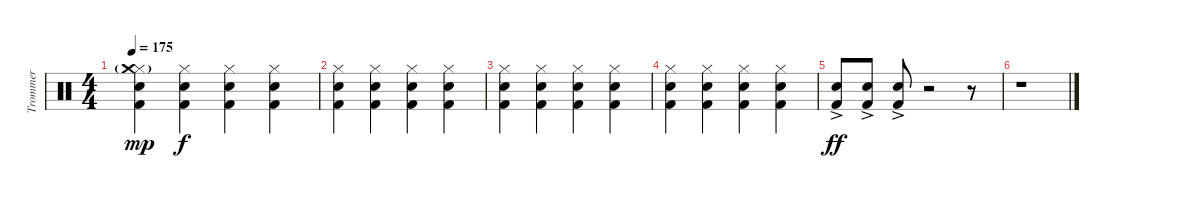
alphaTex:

\track ("Trommer" "Trommer") {instrument percussion}
\staff {score}
\articulation defaults
\ts (4 4)
\tempo 175
\clef neutral
\ks c
("Hi-Hat (closed)" "Crash medium (hit)"{g} "Electric Snare (hit)" "Kick (hit) 2").4{dy mp} ("Hi-Hat (closed)" "Electric Snare (hit)" "Kick (hit) 2").4{dy f} ("Hi-Hat (closed)" "Electric Snare (hit)" "Kick (hit) 2").4 ("Hi-Hat (closed)" "Electric Snare (hit)" "Kick (hit) 2").4 |
("Hi-Hat (closed)" "Electric Snare (hit)" "Kick (hit) 2").4 ("Hi-Hat (closed)" "Electric Snare (hit)" "Kick (hit) 2").4 ("Hi-Hat (closed)" "Electric Snare (hit)" "Kick (hit) 2").4 ("Hi-Hat (closed)" "Electric Snare (hit)" "Kick (hit) 2").4 |
("Hi-Hat (closed)" "Electric Snare (hit)" "Kick (hit) 2").4 ("Hi-Hat (closed)" "Electric Snare (hit)" "Kick (hit) 2").4 ("Hi-Hat (closed)" "Electric Snare (hit)" "Kick (hit) 2").4 ("Hi-Hat (closed)" "Electric Snare (hit)" "Kick (hit) 2").4 |
("Hi-Hat (closed)" "Electric Snare (hit)" "Kick (hit) 2").4 ("Hi-Hat (closed)" "Electric Snare (hit)" "Kick (hit) 2").4 ("Hi-Hat (closed)" "Electric Snare (hit)" "Kick (hit) 2").4 ("Hi-Hat (closed)" "Electric Snare (hit)" "Kick (hit) 2").4 |
("Electric Snare (hit)"{ac} "Kick (hit) 2"{ac}).8{dy ff} ("Electric Snare (hit)"{ac} "Kick (hit) 2"{ac}).8 ("Electric Snare (hit)"{ac} "Kick (hit) 2"{ac}).8 r.2 r.8 |
r.1
